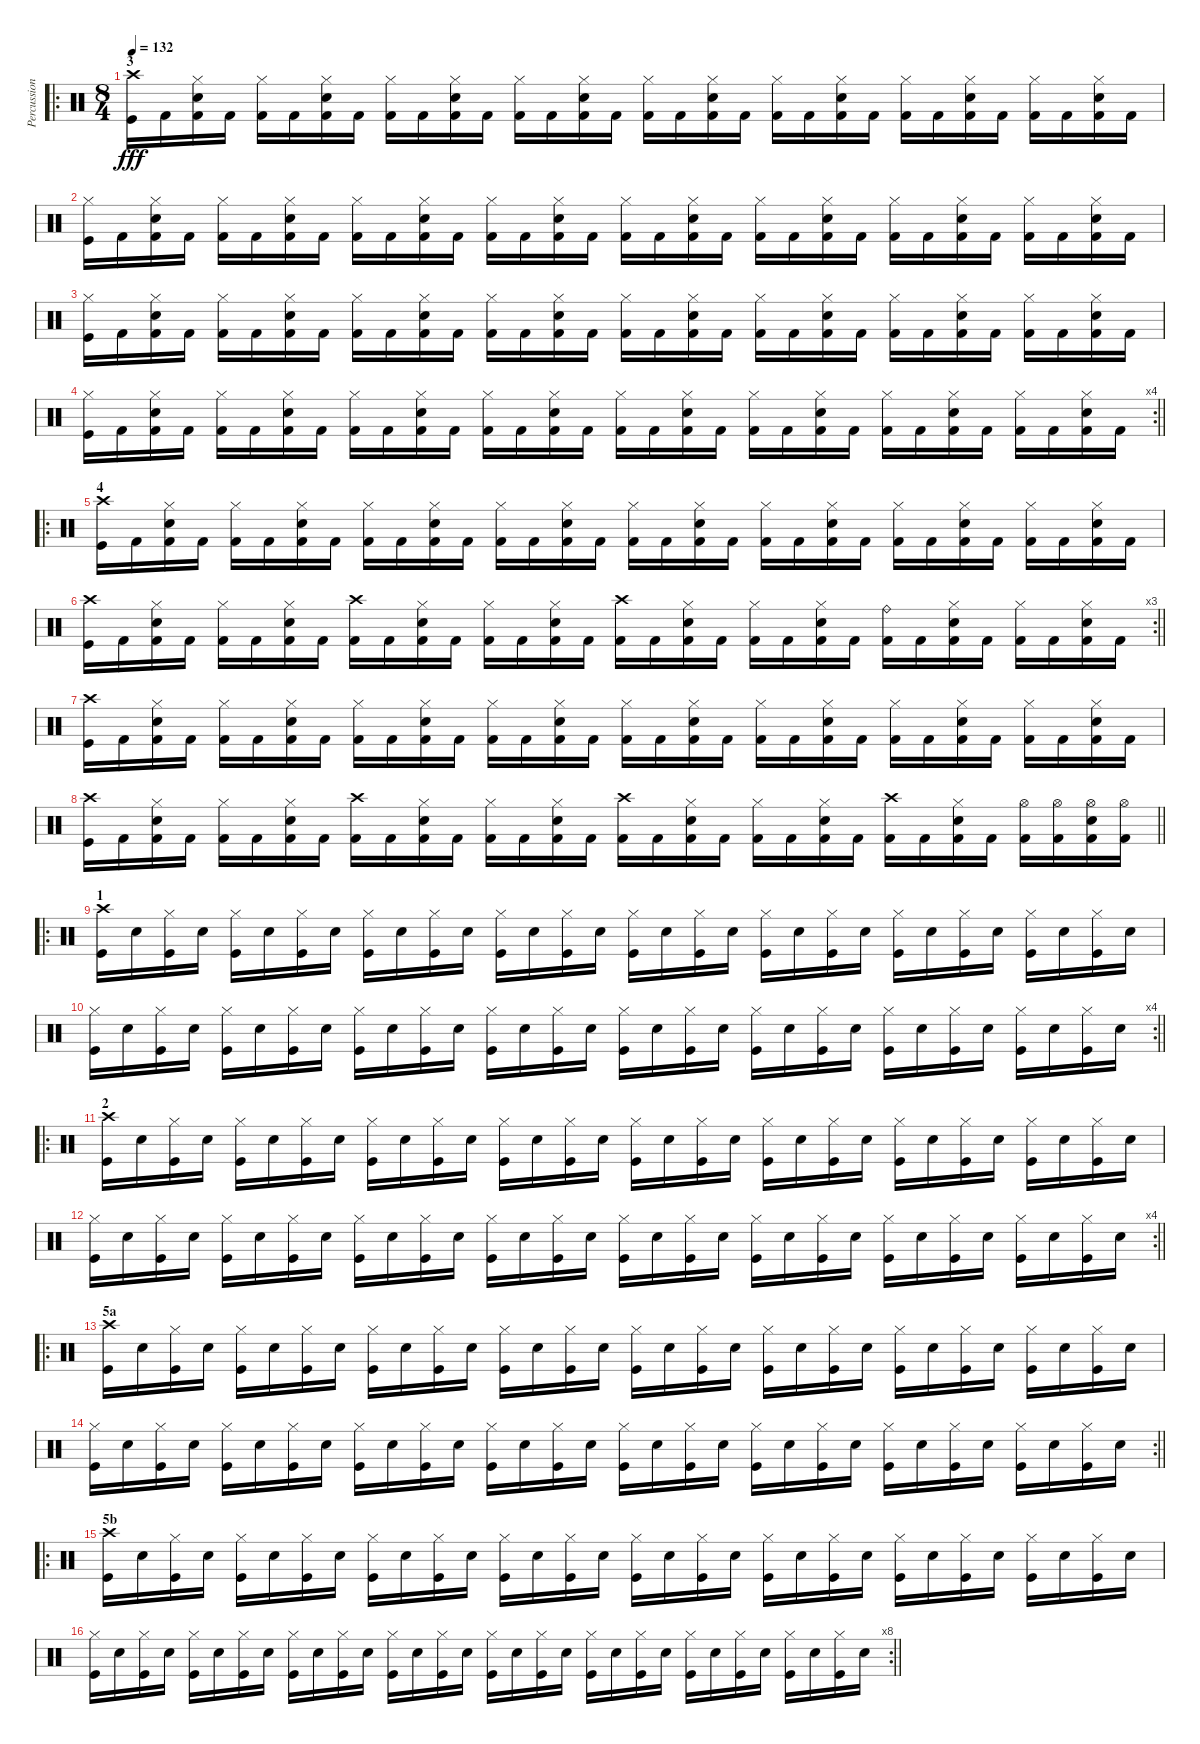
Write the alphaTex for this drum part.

\track ("Percussion" "Percussion") {instrument percussion}
\staff {score}
\articulation defaults
\ro
\ts (8 4)
\section ("" "3")
\tempo 132
\clef neutral
\ks c
("Crash high (hit)" "Kick (hit)").16{dy fff} "Kick (hit) 2".16 ("Hi-Hat (closed)" "Snare (hit) 2" "Kick (hit) 2").16 "Kick (hit) 2".16 ("Hi-Hat (closed)" "Kick (hit) 2").16 "Kick (hit) 2".16 ("Hi-Hat (closed)" "Snare (hit) 2" "Kick (hit) 2").16 "Kick (hit) 2".16 ("Hi-Hat (closed)" "Kick (hit) 2").16 "Kick (hit) 2".16 ("Hi-Hat (closed)" "Snare (hit) 2" "Kick (hit) 2").16 "Kick (hit) 2".16 ("Hi-Hat (closed)" "Kick (hit) 2").16 "Kick (hit) 2".16 ("Hi-Hat (closed)" "Snare (hit) 2" "Kick (hit) 2").16 "Kick (hit) 2".16 ("Hi-Hat (closed)" "Kick (hit) 2").16 "Kick (hit) 2".16 ("Hi-Hat (closed)" "Snare (hit) 2" "Kick (hit) 2").16 "Kick (hit) 2".16 ("Hi-Hat (closed)" "Kick (hit) 2").16 "Kick (hit) 2".16 ("Hi-Hat (closed)" "Snare (hit) 2" "Kick (hit) 2").16 "Kick (hit) 2".16 ("Hi-Hat (closed)" "Kick (hit) 2").16 "Kick (hit) 2".16 ("Hi-Hat (closed)" "Snare (hit) 2" "Kick (hit) 2").16 "Kick (hit) 2".16 ("Hi-Hat (closed)" "Kick (hit) 2").16 "Kick (hit) 2".16 ("Hi-Hat (closed)" "Snare (hit) 2" "Kick (hit) 2").16 "Kick (hit) 2".16 |
("Hi-Hat (closed)" "Kick (hit)").16 "Kick (hit) 2".16 ("Hi-Hat (closed)" "Snare (hit) 2" "Kick (hit) 2").16 "Kick (hit) 2".16 ("Hi-Hat (closed)" "Kick (hit) 2").16 "Kick (hit) 2".16 ("Hi-Hat (closed)" "Snare (hit) 2" "Kick (hit) 2").16 "Kick (hit) 2".16 ("Hi-Hat (closed)" "Kick (hit) 2").16 "Kick (hit) 2".16 ("Hi-Hat (closed)" "Snare (hit) 2" "Kick (hit) 2").16 "Kick (hit) 2".16 ("Hi-Hat (closed)" "Kick (hit) 2").16 "Kick (hit) 2".16 ("Hi-Hat (closed)" "Snare (hit) 2" "Kick (hit) 2").16 "Kick (hit) 2".16 ("Hi-Hat (closed)" "Kick (hit) 2").16 "Kick (hit) 2".16 ("Hi-Hat (closed)" "Snare (hit) 2" "Kick (hit) 2").16 "Kick (hit) 2".16 ("Hi-Hat (closed)" "Kick (hit) 2").16 "Kick (hit) 2".16 ("Hi-Hat (closed)" "Snare (hit) 2" "Kick (hit) 2").16 "Kick (hit) 2".16 ("Hi-Hat (closed)" "Kick (hit) 2").16 "Kick (hit) 2".16 ("Hi-Hat (closed)" "Snare (hit) 2" "Kick (hit) 2").16 "Kick (hit) 2".16 ("Hi-Hat (closed)" "Kick (hit) 2").16 "Kick (hit) 2".16 ("Hi-Hat (closed)" "Snare (hit) 2" "Kick (hit) 2").16 "Kick (hit) 2".16 |
("Hi-Hat (closed)" "Kick (hit)").16 "Kick (hit) 2".16 ("Hi-Hat (closed)" "Snare (hit) 2" "Kick (hit) 2").16 "Kick (hit) 2".16 ("Hi-Hat (closed)" "Kick (hit) 2").16 "Kick (hit) 2".16 ("Hi-Hat (closed)" "Snare (hit) 2" "Kick (hit) 2").16 "Kick (hit) 2".16 ("Hi-Hat (closed)" "Kick (hit) 2").16 "Kick (hit) 2".16 ("Hi-Hat (closed)" "Snare (hit) 2" "Kick (hit) 2").16 "Kick (hit) 2".16 ("Hi-Hat (closed)" "Kick (hit) 2").16 "Kick (hit) 2".16 ("Hi-Hat (closed)" "Snare (hit) 2" "Kick (hit) 2").16 "Kick (hit) 2".16 ("Hi-Hat (closed)" "Kick (hit) 2").16 "Kick (hit) 2".16 ("Hi-Hat (closed)" "Snare (hit) 2" "Kick (hit) 2").16 "Kick (hit) 2".16 ("Hi-Hat (closed)" "Kick (hit) 2").16 "Kick (hit) 2".16 ("Hi-Hat (closed)" "Snare (hit) 2" "Kick (hit) 2").16 "Kick (hit) 2".16 ("Hi-Hat (closed)" "Kick (hit) 2").16 "Kick (hit) 2".16 ("Hi-Hat (closed)" "Snare (hit) 2" "Kick (hit) 2").16 "Kick (hit) 2".16 ("Hi-Hat (closed)" "Kick (hit) 2").16 "Kick (hit) 2".16 ("Hi-Hat (closed)" "Snare (hit) 2" "Kick (hit) 2").16 "Kick (hit) 2".16 |
\rc 4
\barLineRight lightlight
("Hi-Hat (closed)" "Kick (hit)").16 "Kick (hit) 2".16 ("Hi-Hat (closed)" "Snare (hit) 2" "Kick (hit) 2").16 "Kick (hit) 2".16 ("Hi-Hat (closed)" "Kick (hit) 2").16 "Kick (hit) 2".16 ("Hi-Hat (closed)" "Snare (hit) 2" "Kick (hit) 2").16 "Kick (hit) 2".16 ("Hi-Hat (closed)" "Kick (hit) 2").16 "Kick (hit) 2".16 ("Hi-Hat (closed)" "Snare (hit) 2" "Kick (hit) 2").16 "Kick (hit) 2".16 ("Hi-Hat (closed)" "Kick (hit) 2").16 "Kick (hit) 2".16 ("Hi-Hat (closed)" "Snare (hit) 2" "Kick (hit) 2").16 "Kick (hit) 2".16 ("Hi-Hat (closed)" "Kick (hit) 2").16 "Kick (hit) 2".16 ("Hi-Hat (closed)" "Snare (hit) 2" "Kick (hit) 2").16 "Kick (hit) 2".16 ("Hi-Hat (closed)" "Kick (hit) 2").16 "Kick (hit) 2".16 ("Hi-Hat (closed)" "Snare (hit) 2" "Kick (hit) 2").16 "Kick (hit) 2".16 ("Hi-Hat (closed)" "Kick (hit) 2").16 "Kick (hit) 2".16 ("Hi-Hat (closed)" "Snare (hit) 2" "Kick (hit) 2").16 "Kick (hit) 2".16 ("Hi-Hat (closed)" "Kick (hit) 2").16 "Kick (hit) 2".16 ("Hi-Hat (closed)" "Snare (hit) 2" "Kick (hit) 2").16 "Kick (hit) 2".16 |
\ro
\section ("" "4")
("Crash high (hit)" "Kick (hit)").16 "Kick (hit) 2".16 ("Hi-Hat (closed)" "Snare (hit) 2" "Kick (hit) 2").16 "Kick (hit) 2".16 ("Hi-Hat (closed)" "Kick (hit) 2").16 "Kick (hit) 2".16 ("Hi-Hat (closed)" "Snare (hit) 2" "Kick (hit) 2").16 "Kick (hit) 2".16 ("Hi-Hat (closed)" "Kick (hit) 2").16 "Kick (hit) 2".16 ("Hi-Hat (closed)" "Snare (hit) 2" "Kick (hit) 2").16 "Kick (hit) 2".16 ("Hi-Hat (closed)" "Kick (hit) 2").16 "Kick (hit) 2".16 ("Hi-Hat (closed)" "Snare (hit) 2" "Kick (hit) 2").16 "Kick (hit) 2".16 ("Hi-Hat (closed)" "Kick (hit) 2").16 "Kick (hit) 2".16 ("Hi-Hat (closed)" "Snare (hit) 2" "Kick (hit) 2").16 "Kick (hit) 2".16 ("Hi-Hat (closed)" "Kick (hit) 2").16 "Kick (hit) 2".16 ("Hi-Hat (closed)" "Snare (hit) 2" "Kick (hit) 2").16 "Kick (hit) 2".16 ("Hi-Hat (closed)" "Kick (hit) 2").16 "Kick (hit) 2".16 ("Hi-Hat (closed)" "Snare (hit) 2" "Kick (hit) 2").16 "Kick (hit) 2".16 ("Hi-Hat (closed)" "Kick (hit) 2").16 "Kick (hit) 2".16 ("Hi-Hat (closed)" "Snare (hit) 2" "Kick (hit) 2").16 "Kick (hit) 2".16 |
\rc 3
\barLineRight lightlight
("Crash high (hit)" "Kick (hit)").16 "Kick (hit) 2".16 ("Hi-Hat (closed)" "Snare (hit) 2" "Kick (hit) 2").16 "Kick (hit) 2".16 ("Hi-Hat (closed)" "Kick (hit) 2").16 "Kick (hit) 2".16 ("Hi-Hat (closed)" "Snare (hit) 2" "Kick (hit) 2").16 "Kick (hit) 2".16 ("Crash high (hit)" "Kick (hit) 2").16 "Kick (hit) 2".16 ("Hi-Hat (closed)" "Snare (hit) 2" "Kick (hit) 2").16 "Kick (hit) 2".16 ("Hi-Hat (closed)" "Kick (hit) 2").16 "Kick (hit) 2".16 ("Hi-Hat (closed)" "Snare (hit) 2" "Kick (hit) 2").16 "Kick (hit) 2".16 ("Crash high (hit)" "Kick (hit) 2").16 "Kick (hit) 2".16 ("Hi-Hat (closed)" "Snare (hit) 2" "Kick (hit) 2").16 "Kick (hit) 2".16 ("Hi-Hat (closed)" "Kick (hit) 2").16 "Kick (hit) 2".16 ("Hi-Hat (closed)" "Snare (hit) 2" "Kick (hit) 2").16 "Kick (hit) 2".16 ("Ride (bell)" "Kick (hit) 2").16 "Kick (hit) 2".16 ("Hi-Hat (closed)" "Snare (hit) 2" "Kick (hit) 2").16 "Kick (hit) 2".16 ("Hi-Hat (closed)" "Kick (hit) 2").16 "Kick (hit) 2".16 ("Hi-Hat (closed)" "Snare (hit) 2" "Kick (hit) 2").16 "Kick (hit) 2".16 |
("Crash high (hit)" "Kick (hit)").16 "Kick (hit) 2".16 ("Hi-Hat (closed)" "Snare (hit) 2" "Kick (hit) 2").16 "Kick (hit) 2".16 ("Hi-Hat (closed)" "Kick (hit) 2").16 "Kick (hit) 2".16 ("Hi-Hat (closed)" "Snare (hit) 2" "Kick (hit) 2").16 "Kick (hit) 2".16 ("Hi-Hat (closed)" "Kick (hit) 2").16 "Kick (hit) 2".16 ("Hi-Hat (closed)" "Snare (hit) 2" "Kick (hit) 2").16 "Kick (hit) 2".16 ("Hi-Hat (closed)" "Kick (hit) 2").16 "Kick (hit) 2".16 ("Hi-Hat (closed)" "Snare (hit) 2" "Kick (hit) 2").16 "Kick (hit) 2".16 ("Hi-Hat (closed)" "Kick (hit) 2").16 "Kick (hit) 2".16 ("Hi-Hat (closed)" "Snare (hit) 2" "Kick (hit) 2").16 "Kick (hit) 2".16 ("Hi-Hat (closed)" "Kick (hit) 2").16 "Kick (hit) 2".16 ("Hi-Hat (closed)" "Snare (hit) 2" "Kick (hit) 2").16 "Kick (hit) 2".16 ("Hi-Hat (closed)" "Kick (hit) 2").16 "Kick (hit) 2".16 ("Hi-Hat (closed)" "Snare (hit) 2" "Kick (hit) 2").16 "Kick (hit) 2".16 ("Hi-Hat (closed)" "Kick (hit) 2").16 "Kick (hit) 2".16 ("Hi-Hat (closed)" "Snare (hit) 2" "Kick (hit) 2").16 "Kick (hit) 2".16 |
\barLineRight lightlight
("Crash high (hit)" "Kick (hit)").16 "Kick (hit) 2".16 ("Hi-Hat (closed)" "Snare (hit) 2" "Kick (hit) 2").16 "Kick (hit) 2".16 ("Hi-Hat (closed)" "Kick (hit) 2").16 "Kick (hit) 2".16 ("Hi-Hat (closed)" "Snare (hit) 2" "Kick (hit) 2").16 "Kick (hit) 2".16 ("Crash high (hit)" "Kick (hit) 2").16 "Kick (hit) 2".16 ("Hi-Hat (closed)" "Snare (hit) 2" "Kick (hit) 2").16 "Kick (hit) 2".16 ("Hi-Hat (closed)" "Kick (hit) 2").16 "Kick (hit) 2".16 ("Hi-Hat (closed)" "Snare (hit) 2" "Kick (hit) 2").16 "Kick (hit) 2".16 ("Crash high (hit)" "Kick (hit) 2").16 "Kick (hit) 2".16 ("Hi-Hat (closed)" "Snare (hit) 2" "Kick (hit) 2").16 "Kick (hit) 2".16 ("Hi-Hat (closed)" "Kick (hit) 2").16 "Kick (hit) 2".16 ("Hi-Hat (closed)" "Snare (hit) 2" "Kick (hit) 2").16 "Kick (hit) 2".16 ("Crash high (hit)" "Kick (hit) 2").16 "Kick (hit) 2".16 ("Hi-Hat (closed)" "Snare (hit) 2" "Kick (hit) 2").16 "Kick (hit) 2".16 ("Hi-Hat (open)" "Kick (hit) 2").16 ("Hi-Hat (open)" "Kick (hit) 2").16 ("Hi-Hat (open)" "Snare (hit) 2" "Kick (hit) 2").16 ("Hi-Hat (open)" "Kick (hit) 2").16 |
\ro
\section ("" "1")
("Crash high (hit)" "Kick (hit)").16 "Snare (hit) 2".16 ("Hi-Hat (closed)" "Kick (hit)").16 "Snare (hit) 2".16 ("Hi-Hat (closed)" "Kick (hit)").16 "Snare (hit) 2".16 ("Hi-Hat (closed)" "Kick (hit)").16 "Snare (hit) 2".16 ("Hi-Hat (closed)" "Kick (hit)").16 "Snare (hit) 2".16 ("Hi-Hat (closed)" "Kick (hit)").16 "Snare (hit) 2".16 ("Hi-Hat (closed)" "Kick (hit)").16 "Snare (hit) 2".16 ("Hi-Hat (closed)" "Kick (hit)").16 "Snare (hit) 2".16 ("Hi-Hat (closed)" "Kick (hit)").16 "Snare (hit) 2".16 ("Hi-Hat (closed)" "Kick (hit)").16 "Snare (hit) 2".16 ("Hi-Hat (closed)" "Kick (hit)").16 "Snare (hit) 2".16 ("Hi-Hat (closed)" "Kick (hit)").16 "Snare (hit) 2".16 ("Hi-Hat (closed)" "Kick (hit)").16 "Snare (hit) 2".16 ("Hi-Hat (closed)" "Kick (hit)").16 "Snare (hit) 2".16 ("Hi-Hat (closed)" "Kick (hit)").16 "Snare (hit) 2".16 ("Hi-Hat (closed)" "Kick (hit)").16 "Snare (hit) 2".16 |
\rc 4
\barLineRight lightlight
("Hi-Hat (closed)" "Kick (hit)").16 "Snare (hit) 2".16 ("Hi-Hat (closed)" "Kick (hit)").16 "Snare (hit) 2".16 ("Hi-Hat (closed)" "Kick (hit)").16 "Snare (hit) 2".16 ("Hi-Hat (closed)" "Kick (hit)").16 "Snare (hit) 2".16 ("Hi-Hat (closed)" "Kick (hit)").16 "Snare (hit) 2".16 ("Hi-Hat (closed)" "Kick (hit)").16 "Snare (hit) 2".16 ("Hi-Hat (closed)" "Kick (hit)").16 "Snare (hit) 2".16 ("Hi-Hat (closed)" "Kick (hit)").16 "Snare (hit) 2".16 ("Hi-Hat (closed)" "Kick (hit)").16 "Snare (hit) 2".16 ("Hi-Hat (closed)" "Kick (hit)").16 "Snare (hit) 2".16 ("Hi-Hat (closed)" "Kick (hit)").16 "Snare (hit) 2".16 ("Hi-Hat (closed)" "Kick (hit)").16 "Snare (hit) 2".16 ("Hi-Hat (closed)" "Kick (hit)").16 "Snare (hit) 2".16 ("Hi-Hat (closed)" "Kick (hit)").16 "Snare (hit) 2".16 ("Hi-Hat (closed)" "Kick (hit)").16 "Snare (hit) 2".16 ("Hi-Hat (closed)" "Kick (hit)").16 "Snare (hit) 2".16 |
\ro
\section ("" "2")
("Crash high (hit)" "Kick (hit)").16 "Snare (hit) 2".16 ("Hi-Hat (closed)" "Kick (hit)").16 "Snare (hit) 2".16 ("Hi-Hat (closed)" "Kick (hit)").16 "Snare (hit) 2".16 ("Hi-Hat (closed)" "Kick (hit)").16 "Snare (hit) 2".16 ("Hi-Hat (closed)" "Kick (hit)").16 "Snare (hit) 2".16 ("Hi-Hat (closed)" "Kick (hit)").16 "Snare (hit) 2".16 ("Hi-Hat (closed)" "Kick (hit)").16 "Snare (hit) 2".16 ("Hi-Hat (closed)" "Kick (hit)").16 "Snare (hit) 2".16 ("Hi-Hat (closed)" "Kick (hit)").16 "Snare (hit) 2".16 ("Hi-Hat (closed)" "Kick (hit)").16 "Snare (hit) 2".16 ("Hi-Hat (closed)" "Kick (hit)").16 "Snare (hit) 2".16 ("Hi-Hat (closed)" "Kick (hit)").16 "Snare (hit) 2".16 ("Hi-Hat (closed)" "Kick (hit)").16 "Snare (hit) 2".16 ("Hi-Hat (closed)" "Kick (hit)").16 "Snare (hit) 2".16 ("Hi-Hat (closed)" "Kick (hit)").16 "Snare (hit) 2".16 ("Hi-Hat (closed)" "Kick (hit)").16 "Snare (hit) 2".16 |
\rc 4
\barLineRight lightlight
("Hi-Hat (closed)" "Kick (hit)").16 "Snare (hit) 2".16 ("Hi-Hat (closed)" "Kick (hit)").16 "Snare (hit) 2".16 ("Hi-Hat (closed)" "Kick (hit)").16 "Snare (hit) 2".16 ("Hi-Hat (closed)" "Kick (hit)").16 "Snare (hit) 2".16 ("Hi-Hat (closed)" "Kick (hit)").16 "Snare (hit) 2".16 ("Hi-Hat (closed)" "Kick (hit)").16 "Snare (hit) 2".16 ("Hi-Hat (closed)" "Kick (hit)").16 "Snare (hit) 2".16 ("Hi-Hat (closed)" "Kick (hit)").16 "Snare (hit) 2".16 ("Hi-Hat (closed)" "Kick (hit)").16 "Snare (hit) 2".16 ("Hi-Hat (closed)" "Kick (hit)").16 "Snare (hit) 2".16 ("Hi-Hat (closed)" "Kick (hit)").16 "Snare (hit) 2".16 ("Hi-Hat (closed)" "Kick (hit)").16 "Snare (hit) 2".16 ("Hi-Hat (closed)" "Kick (hit)").16 "Snare (hit) 2".16 ("Hi-Hat (closed)" "Kick (hit)").16 "Snare (hit) 2".16 ("Hi-Hat (closed)" "Kick (hit)").16 "Snare (hit) 2".16 ("Hi-Hat (closed)" "Kick (hit)").16 "Snare (hit) 2".16 |
\ro
\section ("" "5a")
("Crash high (hit)" "Kick (hit)").16 "Snare (hit) 2".16 ("Hi-Hat (closed)" "Kick (hit)").16 "Snare (hit) 2".16 ("Hi-Hat (closed)" "Kick (hit)").16 "Snare (hit) 2".16 ("Hi-Hat (closed)" "Kick (hit)").16 "Snare (hit) 2".16 ("Hi-Hat (closed)" "Kick (hit)").16 "Snare (hit) 2".16 ("Hi-Hat (closed)" "Kick (hit)").16 "Snare (hit) 2".16 ("Hi-Hat (closed)" "Kick (hit)").16 "Snare (hit) 2".16 ("Hi-Hat (closed)" "Kick (hit)").16 "Snare (hit) 2".16 ("Hi-Hat (closed)" "Kick (hit)").16 "Snare (hit) 2".16 ("Hi-Hat (closed)" "Kick (hit)").16 "Snare (hit) 2".16 ("Hi-Hat (closed)" "Kick (hit)").16 "Snare (hit) 2".16 ("Hi-Hat (closed)" "Kick (hit)").16 "Snare (hit) 2".16 ("Hi-Hat (closed)" "Kick (hit)").16 "Snare (hit) 2".16 ("Hi-Hat (closed)" "Kick (hit)").16 "Snare (hit) 2".16 ("Hi-Hat (closed)" "Kick (hit)").16 "Snare (hit) 2".16 ("Hi-Hat (closed)" "Kick (hit)").16 "Snare (hit) 2".16 |
\rc 2
\barLineRight lightlight
("Hi-Hat (closed)" "Kick (hit)").16 "Snare (hit) 2".16 ("Hi-Hat (closed)" "Kick (hit)").16 "Snare (hit) 2".16 ("Hi-Hat (closed)" "Kick (hit)").16 "Snare (hit) 2".16 ("Hi-Hat (closed)" "Kick (hit)").16 "Snare (hit) 2".16 ("Hi-Hat (closed)" "Kick (hit)").16 "Snare (hit) 2".16 ("Hi-Hat (closed)" "Kick (hit)").16 "Snare (hit) 2".16 ("Hi-Hat (closed)" "Kick (hit)").16 "Snare (hit) 2".16 ("Hi-Hat (closed)" "Kick (hit)").16 "Snare (hit) 2".16 ("Hi-Hat (closed)" "Kick (hit)").16 "Snare (hit) 2".16 ("Hi-Hat (closed)" "Kick (hit)").16 "Snare (hit) 2".16 ("Hi-Hat (closed)" "Kick (hit)").16 "Snare (hit) 2".16 ("Hi-Hat (closed)" "Kick (hit)").16 "Snare (hit) 2".16 ("Hi-Hat (closed)" "Kick (hit)").16 "Snare (hit) 2".16 ("Hi-Hat (closed)" "Kick (hit)").16 "Snare (hit) 2".16 ("Hi-Hat (closed)" "Kick (hit)").16 "Snare (hit) 2".16 ("Hi-Hat (closed)" "Kick (hit)").16 "Snare (hit) 2".16 |
\ro
\section ("" "5b")
("Crash high (hit)" "Kick (hit)").16 "Snare (hit) 2".16 ("Hi-Hat (closed)" "Kick (hit)").16 "Snare (hit) 2".16 ("Hi-Hat (closed)" "Kick (hit)").16 "Snare (hit) 2".16 ("Hi-Hat (closed)" "Kick (hit)").16 "Snare (hit) 2".16 ("Hi-Hat (closed)" "Kick (hit)").16 "Snare (hit) 2".16 ("Hi-Hat (closed)" "Kick (hit)").16 "Snare (hit) 2".16 ("Hi-Hat (closed)" "Kick (hit)").16 "Snare (hit) 2".16 ("Hi-Hat (closed)" "Kick (hit)").16 "Snare (hit) 2".16 ("Hi-Hat (closed)" "Kick (hit)").16 "Snare (hit) 2".16 ("Hi-Hat (closed)" "Kick (hit)").16 "Snare (hit) 2".16 ("Hi-Hat (closed)" "Kick (hit)").16 "Snare (hit) 2".16 ("Hi-Hat (closed)" "Kick (hit)").16 "Snare (hit) 2".16 ("Hi-Hat (closed)" "Kick (hit)").16 "Snare (hit) 2".16 ("Hi-Hat (closed)" "Kick (hit)").16 "Snare (hit) 2".16 ("Hi-Hat (closed)" "Kick (hit)").16 "Snare (hit) 2".16 ("Hi-Hat (closed)" "Kick (hit)").16 "Snare (hit) 2".16 |
\rc 8
\barLineRight lightlight
("Hi-Hat (closed)" "Kick (hit)").16 "Snare (hit) 2".16 ("Hi-Hat (closed)" "Kick (hit)").16 "Snare (hit) 2".16 ("Hi-Hat (closed)" "Kick (hit)").16 "Snare (hit) 2".16 ("Hi-Hat (closed)" "Kick (hit)").16 "Snare (hit) 2".16 ("Hi-Hat (closed)" "Kick (hit)").16 "Snare (hit) 2".16 ("Hi-Hat (closed)" "Kick (hit)").16 "Snare (hit) 2".16 ("Hi-Hat (closed)" "Kick (hit)").16 "Snare (hit) 2".16 ("Hi-Hat (closed)" "Kick (hit)").16 "Snare (hit) 2".16 ("Hi-Hat (closed)" "Kick (hit)").16 "Snare (hit) 2".16 ("Hi-Hat (closed)" "Kick (hit)").16 "Snare (hit) 2".16 ("Hi-Hat (closed)" "Kick (hit)").16 "Snare (hit) 2".16 ("Hi-Hat (closed)" "Kick (hit)").16 "Snare (hit) 2".16 ("Hi-Hat (closed)" "Kick (hit)").16 "Snare (hit) 2".16 ("Hi-Hat (closed)" "Kick (hit)").16 "Snare (hit) 2".16 ("Hi-Hat (closed)" "Kick (hit)").16 "Snare (hit) 2".16 ("Hi-Hat (closed)" "Kick (hit)").16 "Snare (hit) 2".16
